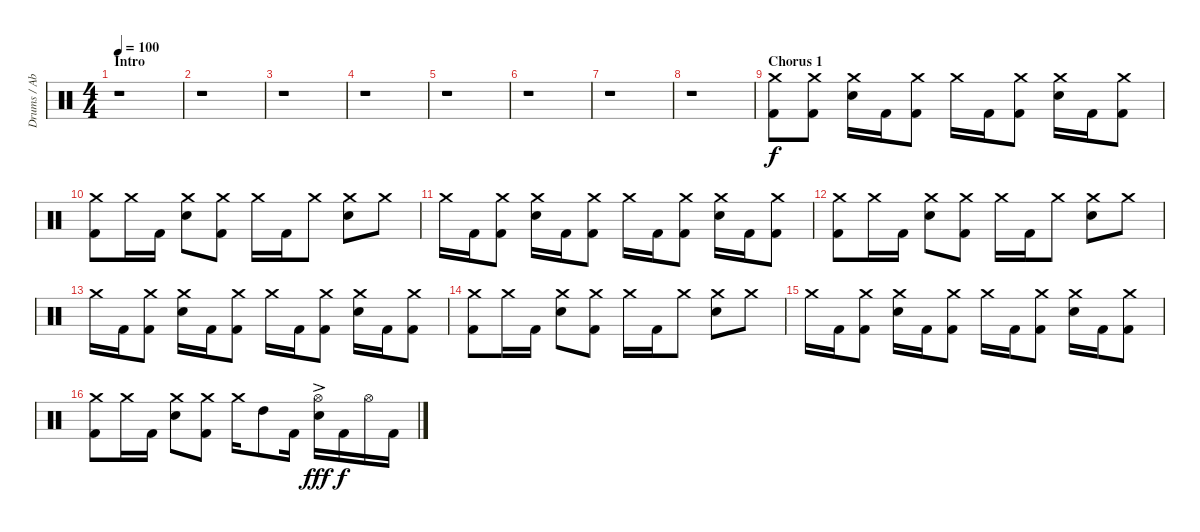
\track ("Drums / Abe Cunningham" "Drums / Ab") {instrument percussion}
\staff {score}
\articulation defaults
\ts (4 4)
\section ("" "Intro")
\tempo 100
\clef neutral
\ks c
r.1{dy f} |
r.1 |
r.1 |
r.1 |
r.1 |
r.1 |
r.1 |
r.1 |
\section ("" "Chorus 1")
("Crash medium (hit)" "Kick (hit) 2").8 ("Crash medium (hit)" "Kick (hit) 2").8 ("Crash medium (hit)" "Electric Snare (hit)").16 "Kick (hit) 2".16 ("Crash medium (hit)" "Kick (hit) 2").8 "Crash medium (hit)".16 "Kick (hit) 2".16 ("Crash medium (hit)" "Kick (hit) 2").8 ("Crash medium (hit)" "Electric Snare (hit)").16 "Kick (hit) 2".16 ("Crash medium (hit)" "Kick (hit) 2").8 |
("Crash medium (hit)" "Kick (hit) 2").8 "Crash medium (hit)".16 "Kick (hit) 2".16 ("Crash medium (hit)" "Electric Snare (hit)").8 ("Crash medium (hit)" "Kick (hit) 2").8 "Crash medium (hit)".16 "Kick (hit) 2".16 "Crash medium (hit)".8 ("Crash medium (hit)" "Electric Snare (hit)").8 "Crash medium (hit)".8 |
"Crash medium (hit)".16 "Kick (hit) 2".16 ("Crash medium (hit)" "Kick (hit) 2").8 ("Crash medium (hit)" "Electric Snare (hit)").16 "Kick (hit) 2".16 ("Crash medium (hit)" "Kick (hit) 2").8 "Crash medium (hit)".16 "Kick (hit) 2".16 ("Crash medium (hit)" "Kick (hit) 2").8 ("Crash medium (hit)" "Electric Snare (hit)").16 "Kick (hit) 2".16 ("Crash medium (hit)" "Kick (hit) 2").8 |
("Crash medium (hit)" "Kick (hit) 2").8 "Crash medium (hit)".16 "Kick (hit) 2".16 ("Crash medium (hit)" "Electric Snare (hit)").8 ("Crash medium (hit)" "Kick (hit) 2").8 "Crash medium (hit)".16 "Kick (hit) 2".16 "Crash medium (hit)".8 ("Crash medium (hit)" "Electric Snare (hit)").8 "Crash medium (hit)".8 |
"Crash medium (hit)".16 "Kick (hit) 2".16 ("Crash medium (hit)" "Kick (hit) 2").8 ("Crash medium (hit)" "Electric Snare (hit)").16 "Kick (hit) 2".16 ("Crash medium (hit)" "Kick (hit) 2").8 "Crash medium (hit)".16 "Kick (hit) 2".16 ("Crash medium (hit)" "Kick (hit) 2").8 ("Crash medium (hit)" "Electric Snare (hit)").16 "Kick (hit) 2".16 ("Crash medium (hit)" "Kick (hit) 2").8 |
("Crash medium (hit)" "Kick (hit) 2").8 "Crash medium (hit)".16 "Kick (hit) 2".16 ("Crash medium (hit)" "Electric Snare (hit)").8 ("Crash medium (hit)" "Kick (hit) 2").8 "Crash medium (hit)".16 "Kick (hit) 2".16 "Crash medium (hit)".8 ("Crash medium (hit)" "Electric Snare (hit)").8 "Crash medium (hit)".8 |
"Crash medium (hit)".16 "Kick (hit) 2".16 ("Crash medium (hit)" "Kick (hit) 2").8 ("Crash medium (hit)" "Electric Snare (hit)").16 "Kick (hit) 2".16 ("Crash medium (hit)" "Kick (hit) 2").8 "Crash medium (hit)".16 "Kick (hit) 2".16 ("Crash medium (hit)" "Kick (hit) 2").8 ("Crash medium (hit)" "Electric Snare (hit)").16 "Kick (hit) 2".16 ("Crash medium (hit)" "Kick (hit) 2").8 |
("Crash medium (hit)" "Kick (hit) 2").8 "Crash medium (hit)".16 "Kick (hit) 2".16 ("Crash medium (hit)" "Electric Snare (hit)").8 ("Crash medium (hit)" "Kick (hit) 2").8 "Crash medium (hit)".16 "High Tom (hit)".8 "Kick (hit) 2".16 ("Hi-Hat (open)"{ac} "Electric Snare (hit)").16{dy fff} "Kick (hit) 2".16{dy f} "Hi-Hat (open)".16 "Kick (hit) 2".16
